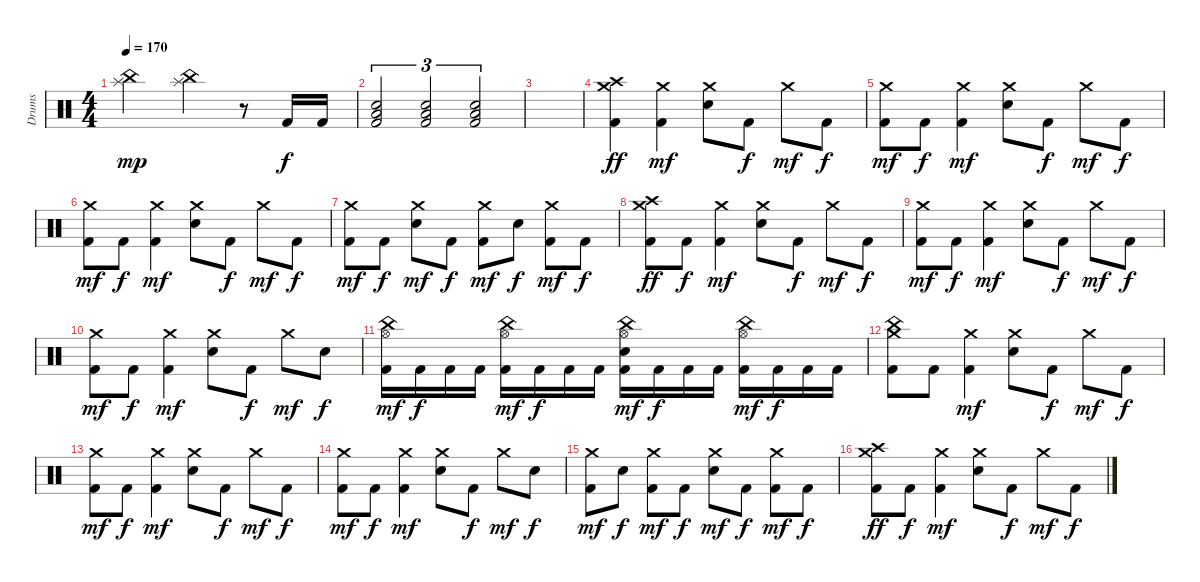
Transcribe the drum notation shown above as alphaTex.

\track ("Drums" "Drums") {instrument percussion}
\staff {score}
\articulation defaults
\ts (4 4)
\tempo 170
\clef neutral
\ks c
("China (hit)" "Splash (hit)").2{dy mp} ("China (hit)" "Splash (hit)").4 r.8 "Kick (hit) 2".16{dy f} "Kick (hit) 2".16 |
("Electric Snare (hit)" "Low Tom (hit)" "Kick (hit) 2").2{tu (3 2)} ("Electric Snare (hit)" "Low Tom (hit)" "Kick (hit) 2").2{tu (3 2)} ("Electric Snare (hit)" "Low Tom (hit)" "Kick (hit) 2").2{tu (3 2)} |
|
("Crash medium (hit)" "Crash high (hit)" "Kick (hit) 2").4{dy ff} ("Crash medium (hit)" "Kick (hit) 2").4{dy mf} ("Crash medium (hit)" "Electric Snare (hit)").8 "Kick (hit) 2".8{dy f} "Crash medium (hit)".8{dy mf} "Kick (hit) 2".8{dy f} |
("Crash medium (hit)" "Kick (hit) 2").8{dy mf} "Kick (hit) 2".8{dy f} ("Crash medium (hit)" "Kick (hit) 2").4{dy mf} ("Crash medium (hit)" "Electric Snare (hit)").8 "Kick (hit) 2".8{dy f} "Crash medium (hit)".8{dy mf} "Kick (hit) 2".8{dy f} |
("Crash medium (hit)" "Kick (hit) 2").8{dy mf} "Kick (hit) 2".8{dy f} ("Crash medium (hit)" "Kick (hit) 2").4{dy mf} ("Crash medium (hit)" "Electric Snare (hit)").8 "Kick (hit) 2".8{dy f} "Crash medium (hit)".8{dy mf} "Kick (hit) 2".8{dy f} |
("Crash medium (hit)" "Kick (hit) 2").8{dy mf} "Kick (hit) 2".8{dy f} ("Crash medium (hit)" "Electric Snare (hit)").8{dy mf} "Kick (hit) 2".8{dy f} ("Crash medium (hit)" "Kick (hit) 2").8{dy mf} "Electric Snare (hit)".8{dy f} ("Crash medium (hit)" "Kick (hit) 2").8{dy mf} "Kick (hit) 2".8{dy f} |
("Crash medium (hit)" "Crash high (hit)" "Kick (hit) 2").8{dy ff} "Kick (hit) 2".8{dy f} ("Crash medium (hit)" "Kick (hit) 2").4{dy mf} ("Crash medium (hit)" "Electric Snare (hit)").8 "Kick (hit) 2".8{dy f} "Crash medium (hit)".8{dy mf} "Kick (hit) 2".8{dy f} |
("Crash medium (hit)" "Kick (hit) 2").8{dy mf} "Kick (hit) 2".8{dy f} ("Crash medium (hit)" "Kick (hit) 2").4{dy mf} ("Crash medium (hit)" "Electric Snare (hit)").8 "Kick (hit) 2".8{dy f} "Crash medium (hit)".8{dy mf} "Kick (hit) 2".8{dy f} |
("Crash medium (hit)" "Kick (hit) 2").8{dy mf} "Kick (hit) 2".8{dy f} ("Crash medium (hit)" "Kick (hit) 2").4{dy mf} ("Crash medium (hit)" "Electric Snare (hit)").8 "Kick (hit) 2".8{dy f} "Crash medium (hit)".8{dy mf} "Electric Snare (hit)".8{dy f} |
("China (hit)" "Hi-Hat (open)" "Kick (hit) 2").16{dy mf} "Kick (hit) 2".16{dy f} "Kick (hit) 2".16 "Kick (hit) 2".16 ("China (hit)" "Hi-Hat (open)" "Kick (hit) 2").16{dy mf} "Kick (hit) 2".16{dy f} "Kick (hit) 2".16 "Kick (hit) 2".16 ("China (hit)" "Hi-Hat (open)" "Electric Snare (hit)" "Kick (hit) 2").16{dy mf} "Kick (hit) 2".16{dy f} "Kick (hit) 2".16 "Kick (hit) 2".16 ("China (hit)" "Hi-Hat (open)" "Kick (hit) 2").16{dy mf} "Kick (hit) 2".16{dy f} "Kick (hit) 2".16 "Kick (hit) 2".16 |
("Crash medium (hit)" "China (hit)" "Kick (hit) 2").8 "Kick (hit) 2".8 ("Crash medium (hit)" "Kick (hit) 2").4{dy mf} ("Crash medium (hit)" "Electric Snare (hit)").8 "Kick (hit) 2".8{dy f} "Crash medium (hit)".8{dy mf} "Kick (hit) 2".8{dy f} |
("Crash medium (hit)" "Kick (hit) 2").8{dy mf} "Kick (hit) 2".8{dy f} ("Crash medium (hit)" "Kick (hit) 2").4{dy mf} ("Crash medium (hit)" "Electric Snare (hit)").8 "Kick (hit) 2".8{dy f} "Crash medium (hit)".8{dy mf} "Kick (hit) 2".8{dy f} |
("Crash medium (hit)" "Kick (hit) 2").8{dy mf} "Kick (hit) 2".8{dy f} ("Crash medium (hit)" "Kick (hit) 2").4{dy mf} ("Crash medium (hit)" "Electric Snare (hit)").8 "Kick (hit) 2".8{dy f} "Crash medium (hit)".8{dy mf} "Electric Snare (hit)".8{dy f} |
("Crash medium (hit)" "Kick (hit) 2").8{dy mf} "Electric Snare (hit)".8{dy f} ("Crash medium (hit)" "Kick (hit) 2").8{dy mf} "Kick (hit) 2".8{dy f} ("Crash medium (hit)" "Electric Snare (hit)").8{dy mf} "Kick (hit) 2".8{dy f} ("Crash medium (hit)" "Kick (hit) 2").8{dy mf} "Kick (hit) 2".8{dy f} |
("Crash medium (hit)" "Crash high (hit)" "Kick (hit) 2").8{dy ff} "Kick (hit) 2".8{dy f} ("Crash medium (hit)" "Kick (hit) 2").4{dy mf} ("Crash medium (hit)" "Electric Snare (hit)").8 "Kick (hit) 2".8{dy f} "Crash medium (hit)".8{dy mf} "Kick (hit) 2".8{dy f}
